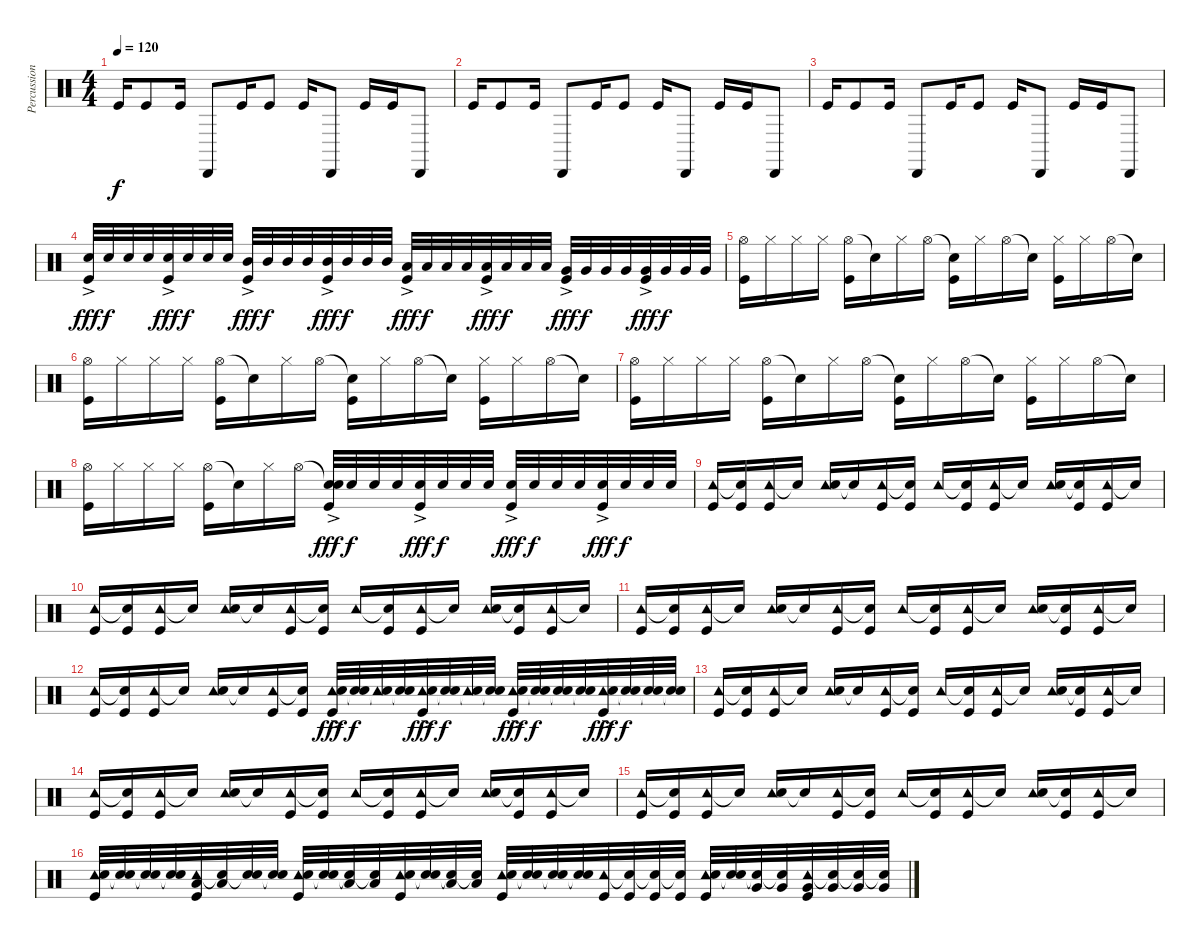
\track ("Percussion" "Percussion") {instrument percussion}
\staff {score}
\articulation defaults
\ts (4 4)
\tempo 120
\clef neutral
\ks c "Kick (hit)".16{dy f} "Kick (hit)".8 "Kick (hit)".16 "Cabasa (hit)".8 "Kick (hit)".16 "Kick (hit)".8 "Kick (hit)".16 "Cabasa (hit)".8 "Kick (hit)".16 "Kick (hit)".16 "Cabasa (hit)".8
|
"Kick (hit)".16 "Kick (hit)".8 "Kick (hit)".16 "Cabasa (hit)".8 "Kick (hit)".16 "Kick (hit)".8 "Kick (hit)".16 "Cabasa (hit)".8 "Kick (hit)".16 "Kick (hit)".16 "Cabasa (hit)".8 |
"Kick (hit)".16 "Kick (hit)".8 "Kick (hit)".16 "Cabasa (hit)".8 "Kick (hit)".16 "Kick (hit)".8 "Kick (hit)".16 "Cabasa (hit)".8 "Kick (hit)".16 "Kick (hit)".16 "Cabasa (hit)".8 |
("Electric Snare (hit)"{ac} "Kick (hit)").32{dy fff} "Electric Snare (hit)".32{dy f} "Electric Snare (hit)".32 "Electric Snare (hit)".32 ("Electric Snare (hit)"{ac} "Kick (hit)").32{dy fff} "Electric Snare (hit)".32{dy f} "Electric Snare (hit)".32 "Electric Snare (hit)".32 ("Mid Tom (hit)"{ac} "Kick (hit)").32{dy fff} "Mid Tom (hit)".32{dy f} "Mid Tom (hit)".32 "Mid Tom (hit)".32 ("Mid Tom (hit)"{ac} "Kick (hit)").32{dy fff} "Mid Tom (hit)".32{dy f} "Mid Tom (hit)".32 "Mid Tom (hit)".32 ("Low Tom (hit)"{ac} "Kick (hit)").32{dy fff} "Low Tom (hit)".32{dy f} "Low Tom (hit)".32 "Low Tom (hit)".32 ("Low Tom (hit)"{ac} "Kick (hit)").32{dy fff} "Low Tom (hit)".32{dy f} "Low Tom (hit)".32 "Low Tom (hit)".32 ("Very Low Tom (hit)"{ac} "Kick (hit)").32{dy fff} "Very Low Tom (hit)".32{dy f} "Very Low Tom (hit)".32 "Very Low Tom (hit)".32 ("Very Low Tom (hit)"{ac} "Kick (hit)").32{dy fff} "Very Low Tom (hit)".32{dy f} "Very Low Tom (hit)".32 "Very Low Tom (hit)".32 |
("Hi-Hat (open)" "Kick (hit)").16 "Hi-Hat (closed)".16 "Hi-Hat (closed)".16 "Hi-Hat (closed)".16 ("Hi-Hat (open)" "Kick (hit)").16 "Snare (hit)"{t}.16 "Hi-Hat (closed)".16 "Hi-Hat (open)".16 ("Snare (hit)"{t} "Kick (hit)").16 "Hi-Hat (closed)".16 "Hi-Hat (open)".16 "Snare (hit)"{t}.16 ("Hi-Hat (closed)" "Kick (hit)").16 "Hi-Hat (closed)".16 "Hi-Hat (open)".16 "Snare (hit)"{t}.16 |
("Hi-Hat (open)" "Kick (hit)").16 "Hi-Hat (closed)".16 "Hi-Hat (closed)".16 "Hi-Hat (closed)".16 ("Hi-Hat (open)" "Kick (hit)").16 "Snare (hit)"{t}.16 "Hi-Hat (closed)".16 "Hi-Hat (open)".16 ("Snare (hit)"{t} "Kick (hit)").16 "Hi-Hat (closed)".16 "Hi-Hat (open)".16 "Snare (hit)"{t}.16 ("Hi-Hat (closed)" "Kick (hit)").16 "Hi-Hat (closed)".16 "Hi-Hat (open)".16 "Snare (hit)"{t}.16 |
("Hi-Hat (open)" "Kick (hit)").16 "Hi-Hat (closed)".16 "Hi-Hat (closed)".16 "Hi-Hat (closed)".16 ("Hi-Hat (open)" "Kick (hit)").16 "Snare (hit)"{t}.16 "Hi-Hat (closed)".16 "Hi-Hat (open)".16 ("Snare (hit)"{t} "Kick (hit)").16 "Hi-Hat (closed)".16 "Hi-Hat (open)".16 "Snare (hit)"{t}.16 ("Hi-Hat (closed)" "Kick (hit)").16 "Hi-Hat (closed)".16 "Hi-Hat (open)".16 "Snare (hit)"{t}.16 |
("Hi-Hat (open)" "Kick (hit)").16 "Hi-Hat (closed)".16 "Hi-Hat (closed)".16 "Hi-Hat (closed)".16 ("Hi-Hat (open)" "Kick (hit)").16 "Snare (hit)"{t}.16 "Hi-Hat (closed)".16 "Hi-Hat (open)".16 ("Snare (hit)"{t} "Electric Snare (hit)"{ac} "Kick (hit)").32{dy fff} "Electric Snare (hit)".32{dy f} "Electric Snare (hit)".32 "Electric Snare (hit)".32 ("Electric Snare (hit)"{ac} "Kick (hit)").32{dy fff} "Electric Snare (hit)".32{dy f} "Electric Snare (hit)".32 "Electric Snare (hit)".32 ("Electric Snare (hit)"{ac} "Kick (hit)").32{dy fff} "Electric Snare (hit)".32{dy f} "Electric Snare (hit)".32 "Electric Snare (hit)".32 ("Electric Snare (hit)"{ac} "Kick (hit)").32{dy fff} "Electric Snare (hit)".32{dy f} "Electric Snare (hit)".32 "Electric Snare (hit)".32 |
("Tambourine (hit)" "Kick (hit)").16 ("Snare (hit)"{t} "Kick (hit)").16 ("Tambourine (hit)" "Kick (hit)").16 "Snare (hit)"{t}.16 ("Tambourine (hit)" "Electric Snare (hit)").16 "Snare (hit)"{t}.16 ("Tambourine (hit)" "Kick (hit)").16 ("Snare (hit)"{t} "Kick (hit)").16 "Tambourine (hit)".16 ("Snare (hit)"{t} "Kick (hit)").16 ("Tambourine (hit)" "Kick (hit)").16 "Snare (hit)"{t}.16 ("Tambourine (hit)" "Electric Snare (hit)").16 ("Snare (hit)"{t} "Kick (hit)").16 ("Tambourine (hit)" "Kick (hit)").16 "Snare (hit)"{t}.16 |
("Tambourine (hit)" "Kick (hit)").16 ("Snare (hit)"{t} "Kick (hit)").16 ("Tambourine (hit)" "Kick (hit)").16 "Snare (hit)"{t}.16 ("Tambourine (hit)" "Electric Snare (hit)").16 "Snare (hit)"{t}.16 ("Tambourine (hit)" "Kick (hit)").16 ("Snare (hit)"{t} "Kick (hit)").16 "Tambourine (hit)".16 ("Snare (hit)"{t} "Kick (hit)").16 ("Tambourine (hit)" "Kick (hit)").16 "Snare (hit)"{t}.16 ("Tambourine (hit)" "Electric Snare (hit)").16 ("Snare (hit)"{t} "Kick (hit)").16 ("Tambourine (hit)" "Kick (hit)").16 "Snare (hit)"{t}.16 |
("Tambourine (hit)" "Kick (hit)").16 ("Snare (hit)"{t} "Kick (hit)").16 ("Tambourine (hit)" "Kick (hit)").16 "Snare (hit)"{t}.16 ("Tambourine (hit)" "Electric Snare (hit)").16 "Snare (hit)"{t}.16 ("Tambourine (hit)" "Kick (hit)").16 ("Snare (hit)"{t} "Kick (hit)").16 "Tambourine (hit)".16 ("Snare (hit)"{t} "Kick (hit)").16 ("Tambourine (hit)" "Kick (hit)").16 "Snare (hit)"{t}.16 ("Tambourine (hit)" "Electric Snare (hit)").16 ("Snare (hit)"{t} "Kick (hit)").16 ("Tambourine (hit)" "Kick (hit)").16 "Snare (hit)"{t}.16 |
("Tambourine (hit)" "Kick (hit)").16 ("Snare (hit)"{t} "Kick (hit)").16 ("Tambourine (hit)" "Kick (hit)").16 "Snare (hit)"{t}.16 ("Tambourine (hit)" "Electric Snare (hit)").16 "Snare (hit)"{t}.16 ("Tambourine (hit)" "Kick (hit)").16 ("Snare (hit)"{t} "Kick (hit)").16 ("Tambourine (hit)" "Electric Snare (hit)"{ac} "Kick (hit)").32{dy fff} ("Snare (hit)"{t} "Electric Snare (hit)").32{dy f} ("Tambourine (hit)"{t} "Electric Snare (hit)").32 ("Snare (hit)"{t} "Electric Snare (hit)").32 ("Tambourine (hit)" "Electric Snare (hit)"{ac} "Kick (hit)").32{dy fff} ("Snare (hit)"{t} "Electric Snare (hit)").32{dy f} ("Tambourine (hit)"{t} "Electric Snare (hit)").32 ("Snare (hit)"{t} "Electric Snare (hit)").32 ("Tambourine (hit)" "Electric Snare (hit)"{ac} "Kick (hit)").32{dy fff} ("Snare (hit)"{t} "Electric Snare (hit)").32{dy f} ("Snare (hit)"{t} "Electric Snare (hit)").32 ("Snare (hit)"{t} "Electric Snare (hit)").32 ("Tambourine (hit)" "Electric Snare (hit)"{ac} "Kick (hit)").32{dy fff} ("Snare (hit)"{t} "Electric Snare (hit)").32{dy f} ("Snare (hit)"{t} "Electric Snare (hit)").32 ("Snare (hit)"{t} "Electric Snare (hit)").32 |
("Tambourine (hit)" "Kick (hit)").16 ("Snare (hit)"{t} "Kick (hit)").16 ("Tambourine (hit)" "Kick (hit)").16 "Snare (hit)"{t}.16 ("Tambourine (hit)" "Electric Snare (hit)").16 "Snare (hit)"{t}.16 ("Tambourine (hit)" "Kick (hit)").16 ("Snare (hit)"{t} "Kick (hit)").16 "Tambourine (hit)".16 ("Snare (hit)"{t} "Kick (hit)").16 ("Tambourine (hit)" "Kick (hit)").16 "Snare (hit)"{t}.16 ("Tambourine (hit)" "Electric Snare (hit)").16 ("Snare (hit)"{t} "Kick (hit)").16 ("Tambourine (hit)" "Kick (hit)").16 "Snare (hit)"{t}.16 |
("Tambourine (hit)" "Kick (hit)").16 ("Snare (hit)"{t} "Kick (hit)").16 ("Tambourine (hit)" "Kick (hit)").16 "Snare (hit)"{t}.16 ("Tambourine (hit)" "Electric Snare (hit)").16 "Snare (hit)"{t}.16 ("Tambourine (hit)" "Kick (hit)").16 ("Snare (hit)"{t} "Kick (hit)").16 "Tambourine (hit)".16 ("Snare (hit)"{t} "Kick (hit)").16 ("Tambourine (hit)" "Kick (hit)").16 "Snare (hit)"{t}.16 ("Tambourine (hit)" "Electric Snare (hit)").16 ("Snare (hit)"{t} "Kick (hit)").16 ("Tambourine (hit)" "Kick (hit)").16 "Snare (hit)"{t}.16 |
("Tambourine (hit)" "Kick (hit)").16 ("Snare (hit)"{t} "Kick (hit)").16 ("Tambourine (hit)" "Kick (hit)").16 "Snare (hit)"{t}.16 ("Tambourine (hit)" "Electric Snare (hit)").16 "Snare (hit)"{t}.16 ("Tambourine (hit)" "Kick (hit)").16 ("Snare (hit)"{t} "Kick (hit)").16 "Tambourine (hit)".16 ("Snare (hit)"{t} "Kick (hit)").16 ("Tambourine (hit)" "Kick (hit)").16 "Snare (hit)"{t}.16 ("Tambourine (hit)" "Electric Snare (hit)").16 ("Snare (hit)"{t} "Kick (hit)").16 ("Tambourine (hit)" "Kick (hit)").16 "Snare (hit)"{t}.16 |
("Tambourine (hit)" "Electric Snare (hit)" "Kick (hit)").32 ("Snare (hit)"{t} "Electric Snare (hit)").32 ("Snare (hit)"{t} "Electric Snare (hit)").32 ("Snare (hit)"{t} "Electric Snare (hit)").32 ("Tambourine (hit)" "Low Tom (hit)" "Kick (hit)").32 ("Snare (hit)"{t} "Low Tom (hit)").32 ("Snare (hit)"{t} "Electric Snare (hit)").32 ("Snare (hit)"{t} "Electric Snare (hit)").32 ("Tambourine (hit)" "Electric Snare (hit)" "Kick (hit)").32 ("Snare (hit)"{t} "Electric Snare (hit)").32 ("Snare (hit)"{t} "Low Tom (hit)").32 ("Snare (hit)"{t} "Low Tom (hit)").32 ("Tambourine (hit)" "Electric Snare (hit)" "Kick (hit)").32 ("Snare (hit)"{t} "Electric Snare (hit)").32 ("Snare (hit)"{t} "Low Tom (hit)").32 ("Snare (hit)"{t} "Low Tom (hit)").32 ("Tambourine (hit)" "Electric Snare (hit)" "Kick (hit)").32 ("Snare (hit)"{t} "Electric Snare (hit)").32 ("Snare (hit)"{t} "Electric Snare (hit)").32 ("Snare (hit)"{t} "Electric Snare (hit)").32 ("Tambourine (hit)" "Kick (hit)").32 ("Snare (hit)"{t} "Kick (hit)").32 ("Snare (hit)"{t} "Kick (hit)").32 ("Snare (hit)"{t} "Kick (hit)").32 ("Tambourine (hit)" "Electric Snare (hit)" "Kick (hit)").32 ("Snare (hit)"{t} "Electric Snare (hit)").32 ("Snare (hit)"{t} "Very Low Tom (hit)").32 ("Snare (hit)"{t} "Very Low Tom (hit)").32 ("Tambourine (hit)" "Very Low Tom (hit)" "Kick (hit)").32 ("Snare (hit)"{t} "Very Low Tom (hit)").32 ("Snare (hit)"{t} "Very Low Tom (hit)").32 ("Snare (hit)"{t} "Very Low Tom (hit)").32
